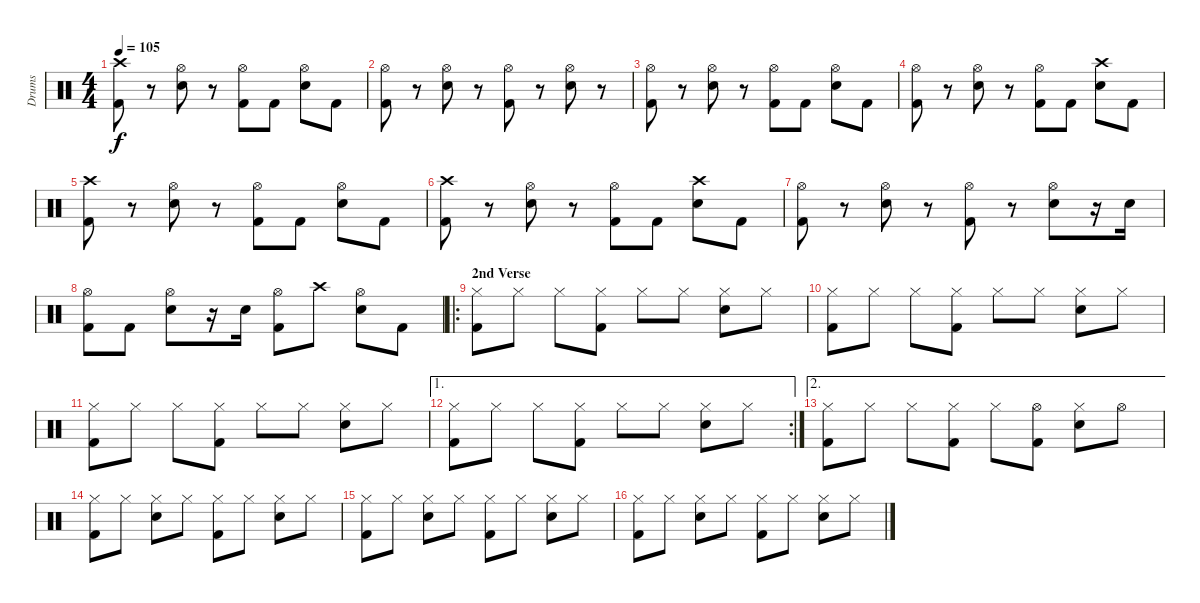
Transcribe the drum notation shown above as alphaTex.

\track ("Drums" "Drums") {instrument percussion}
\staff {score}
\articulation defaults
\ts (4 4)
\tempo 105
\clef neutral
\ks c
("Crash high (hit)" "Kick (hit) 2").8{dy f} r.8 ("Hi-Hat (open)" "Electric Snare (hit)").8 r.8 ("Hi-Hat (open)" "Kick (hit) 2").8 "Kick (hit) 2".8 ("Hi-Hat (open)" "Electric Snare (hit)").8 "Kick (hit) 2".8 |
("Hi-Hat (open)" "Kick (hit) 2").8 r.8 ("Hi-Hat (open)" "Electric Snare (hit)").8 r.8 ("Hi-Hat (open)" "Kick (hit) 2").8 r.8 ("Hi-Hat (open)" "Electric Snare (hit)").8 r.8 |
("Hi-Hat (open)" "Kick (hit) 2").8 r.8 ("Hi-Hat (open)" "Electric Snare (hit)").8 r.8 ("Hi-Hat (open)" "Kick (hit) 2").8 "Kick (hit) 2".8 ("Hi-Hat (open)" "Electric Snare (hit)").8 "Kick (hit) 2".8 |
("Hi-Hat (open)" "Kick (hit) 2").8 r.8 ("Hi-Hat (open)" "Electric Snare (hit)").8 r.8 ("Hi-Hat (open)" "Kick (hit) 2").8 "Kick (hit) 2".8 ("Crash high (hit)" "Electric Snare (hit)").8 "Kick (hit) 2".8 |
("Crash high (hit)" "Kick (hit) 2").8 r.8 ("Hi-Hat (open)" "Electric Snare (hit)").8 r.8 ("Hi-Hat (open)" "Kick (hit) 2").8 "Kick (hit) 2".8 ("Hi-Hat (open)" "Electric Snare (hit)").8 "Kick (hit) 2".8 |
("Crash high (hit)" "Kick (hit) 2").8 r.8 ("Hi-Hat (open)" "Electric Snare (hit)").8 r.8 ("Hi-Hat (open)" "Kick (hit) 2").8 "Kick (hit) 2".8 ("Crash high (hit)" "Electric Snare (hit)").8 "Kick (hit) 2".8 |
("Hi-Hat (open)" "Kick (hit) 2").8 r.8 ("Hi-Hat (open)" "Electric Snare (hit)").8 r.8 ("Hi-Hat (open)" "Kick (hit) 2").8 r.8 ("Hi-Hat (open)" "Electric Snare (hit)").8 r.16 "Electric Snare (hit)".16 |
("Hi-Hat (open)" "Kick (hit) 2").8 "Kick (hit) 2".8 ("Hi-Hat (open)" "Electric Snare (hit)").8 r.16 "Electric Snare (hit)".16 ("Hi-Hat (open)" "Kick (hit) 2").8 "Crash high (hit)".8 ("Hi-Hat (open)" "Electric Snare (hit)").8 "Kick (hit) 2".8 |
\ro
\section ("" "2nd Verse")
("Hi-Hat (closed)" "Kick (hit) 2").8 "Hi-Hat (closed)".8 "Hi-Hat (closed)".8 ("Hi-Hat (closed)" "Kick (hit) 2").8 "Hi-Hat (closed)".8 "Hi-Hat (closed)".8 ("Hi-Hat (closed)" "Electric Snare (hit)").8 "Hi-Hat (closed)".8 |
("Hi-Hat (closed)" "Kick (hit) 2").8 "Hi-Hat (closed)".8 "Hi-Hat (closed)".8 ("Hi-Hat (closed)" "Kick (hit) 2").8 "Hi-Hat (closed)".8 "Hi-Hat (closed)".8 ("Hi-Hat (closed)" "Electric Snare (hit)").8 "Hi-Hat (closed)".8 |
("Hi-Hat (closed)" "Kick (hit) 2").8 "Hi-Hat (closed)".8 "Hi-Hat (closed)".8 ("Hi-Hat (closed)" "Kick (hit) 2").8 "Hi-Hat (closed)".8 "Hi-Hat (closed)".8 ("Hi-Hat (closed)" "Electric Snare (hit)").8 "Hi-Hat (closed)".8 |
\ae 1
\rc 2
("Hi-Hat (closed)" "Kick (hit) 2").8 "Hi-Hat (closed)".8 "Hi-Hat (closed)".8 ("Hi-Hat (closed)" "Kick (hit) 2").8 "Hi-Hat (closed)".8 "Hi-Hat (closed)".8 ("Hi-Hat (closed)" "Electric Snare (hit)").8 "Hi-Hat (closed)".8 |
\ae 2
("Hi-Hat (closed)" "Kick (hit) 2").8 "Hi-Hat (closed)".8 "Hi-Hat (closed)".8 ("Hi-Hat (closed)" "Kick (hit) 2").8 "Hi-Hat (closed)".8 ("Hi-Hat (open)" "Kick (hit) 2").8 ("Hi-Hat (closed)" "Electric Snare (hit)").8 "Hi-Hat (open)".8 |
("Hi-Hat (closed)" "Kick (hit) 2").8 "Hi-Hat (closed)".8 ("Hi-Hat (closed)" "Electric Snare (hit)").8 "Hi-Hat (closed)".8 ("Hi-Hat (closed)" "Kick (hit) 2").8 "Hi-Hat (closed)".8 ("Hi-Hat (closed)" "Electric Snare (hit)").8 "Hi-Hat (closed)".8 |
("Hi-Hat (closed)" "Kick (hit) 2").8 "Hi-Hat (closed)".8 ("Hi-Hat (closed)" "Electric Snare (hit)").8 "Hi-Hat (closed)".8 ("Hi-Hat (closed)" "Kick (hit) 2").8 "Hi-Hat (closed)".8 ("Hi-Hat (closed)" "Electric Snare (hit)").8 "Hi-Hat (closed)".8 |
("Hi-Hat (closed)" "Kick (hit) 2").8 "Hi-Hat (closed)".8 ("Hi-Hat (closed)" "Electric Snare (hit)").8 "Hi-Hat (closed)".8 ("Hi-Hat (closed)" "Kick (hit) 2").8 "Hi-Hat (closed)".8 ("Hi-Hat (closed)" "Electric Snare (hit)").8 "Hi-Hat (closed)".8
